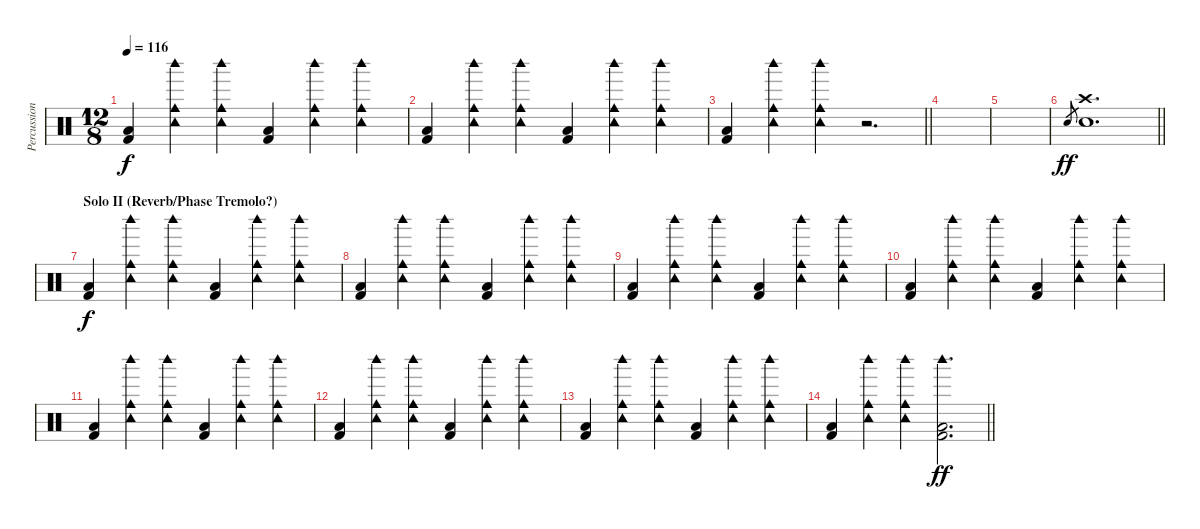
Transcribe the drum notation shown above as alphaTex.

\track ("Percussion" "Percussion") {instrument percussion}
\staff {score}
\articulation defaults
\ts (12 8)
\tempo 116
\clef neutral
\ks c
("Low Floor Tom (hit)" "Kick (hit) 2").4{dy f} ("Tambourine (hit)" "Cowbell medium (hit)" "Woodblock high (hit)").4 ("Tambourine (hit)" "Cowbell medium (hit)" "Woodblock high (hit)").4 ("Low Floor Tom (hit)" "Kick (hit) 2").4 ("Tambourine (hit)" "Cowbell medium (hit)" "Woodblock high (hit)").4 ("Tambourine (hit)" "Cowbell medium (hit)" "Woodblock high (hit)").4 |
("Low Floor Tom (hit)" "Kick (hit) 2").4 ("Tambourine (hit)" "Cowbell medium (hit)" "Woodblock high (hit)").4 ("Tambourine (hit)" "Cowbell medium (hit)" "Woodblock high (hit)").4 ("Low Floor Tom (hit)" "Kick (hit) 2").4 ("Tambourine (hit)" "Cowbell medium (hit)" "Woodblock high (hit)").4 ("Tambourine (hit)" "Cowbell medium (hit)" "Woodblock high (hit)").4 |
\barLineRight lightlight
("Low Floor Tom (hit)" "Kick (hit) 2").4 ("Tambourine (hit)" "Cowbell medium (hit)" "Woodblock high (hit)").4 ("Tambourine (hit)" "Cowbell medium (hit)" "Woodblock high (hit)").4 r.2{d} |
|
|
\barLineRight lightlight "Snare (hit) 2".8{gr dy ff}
("Crash high (hit)" "Snare (hit) 2").1{d} |
\section ("" "Solo II (Reverb/Phase Tremolo?)")
("Low Floor Tom (hit)" "Kick (hit) 2").4{dy f} ("Tambourine (hit)" "Cowbell medium (hit)" "Woodblock high (hit)").4 ("Tambourine (hit)" "Cowbell medium (hit)" "Woodblock high (hit)").4 ("Low Floor Tom (hit)" "Kick (hit) 2").4 ("Tambourine (hit)" "Cowbell medium (hit)" "Woodblock high (hit)").4 ("Tambourine (hit)" "Cowbell medium (hit)" "Woodblock high (hit)").4 |
("Low Floor Tom (hit)" "Kick (hit) 2").4 ("Tambourine (hit)" "Cowbell medium (hit)" "Woodblock high (hit)").4 ("Tambourine (hit)" "Cowbell medium (hit)" "Woodblock high (hit)").4 ("Low Floor Tom (hit)" "Kick (hit) 2").4 ("Tambourine (hit)" "Cowbell medium (hit)" "Woodblock high (hit)").4 ("Tambourine (hit)" "Cowbell medium (hit)" "Woodblock high (hit)").4 |
("Low Floor Tom (hit)" "Kick (hit) 2").4 ("Tambourine (hit)" "Cowbell medium (hit)" "Woodblock high (hit)").4 ("Tambourine (hit)" "Cowbell medium (hit)" "Woodblock high (hit)").4 ("Low Floor Tom (hit)" "Kick (hit) 2").4 ("Tambourine (hit)" "Cowbell medium (hit)" "Woodblock high (hit)").4 ("Tambourine (hit)" "Cowbell medium (hit)" "Woodblock high (hit)").4 |
("Low Floor Tom (hit)" "Kick (hit) 2").4 ("Tambourine (hit)" "Cowbell medium (hit)" "Woodblock high (hit)").4 ("Tambourine (hit)" "Cowbell medium (hit)" "Woodblock high (hit)").4 ("Low Floor Tom (hit)" "Kick (hit) 2").4 ("Tambourine (hit)" "Cowbell medium (hit)" "Woodblock high (hit)").4 ("Tambourine (hit)" "Cowbell medium (hit)" "Woodblock high (hit)").4 |
("Low Floor Tom (hit)" "Kick (hit) 2").4 ("Tambourine (hit)" "Cowbell medium (hit)" "Woodblock high (hit)").4 ("Tambourine (hit)" "Cowbell medium (hit)" "Woodblock high (hit)").4 ("Low Floor Tom (hit)" "Kick (hit) 2").4 ("Tambourine (hit)" "Cowbell medium (hit)" "Woodblock high (hit)").4 ("Tambourine (hit)" "Cowbell medium (hit)" "Woodblock high (hit)").4 |
("Low Floor Tom (hit)" "Kick (hit) 2").4 ("Tambourine (hit)" "Cowbell medium (hit)" "Woodblock high (hit)").4 ("Tambourine (hit)" "Cowbell medium (hit)" "Woodblock high (hit)").4 ("Low Floor Tom (hit)" "Kick (hit) 2").4 ("Tambourine (hit)" "Cowbell medium (hit)" "Woodblock high (hit)").4 ("Tambourine (hit)" "Cowbell medium (hit)" "Woodblock high (hit)").4 |
("Low Floor Tom (hit)" "Kick (hit) 2").4 ("Tambourine (hit)" "Cowbell medium (hit)" "Woodblock high (hit)").4 ("Tambourine (hit)" "Cowbell medium (hit)" "Woodblock high (hit)").4 ("Low Floor Tom (hit)" "Kick (hit) 2").4 ("Tambourine (hit)" "Cowbell medium (hit)" "Woodblock high (hit)").4 ("Tambourine (hit)" "Cowbell medium (hit)" "Woodblock high (hit)").4 |
\barLineRight lightlight
("Low Floor Tom (hit)" "Kick (hit) 2").4 ("Tambourine (hit)" "Cowbell medium (hit)" "Woodblock high (hit)").4 ("Tambourine (hit)" "Cowbell medium (hit)" "Woodblock high (hit)").4 ("Woodblock high (hit)" "Low Floor Tom (hit)" "Kick (hit) 2").2{d dy ff}
